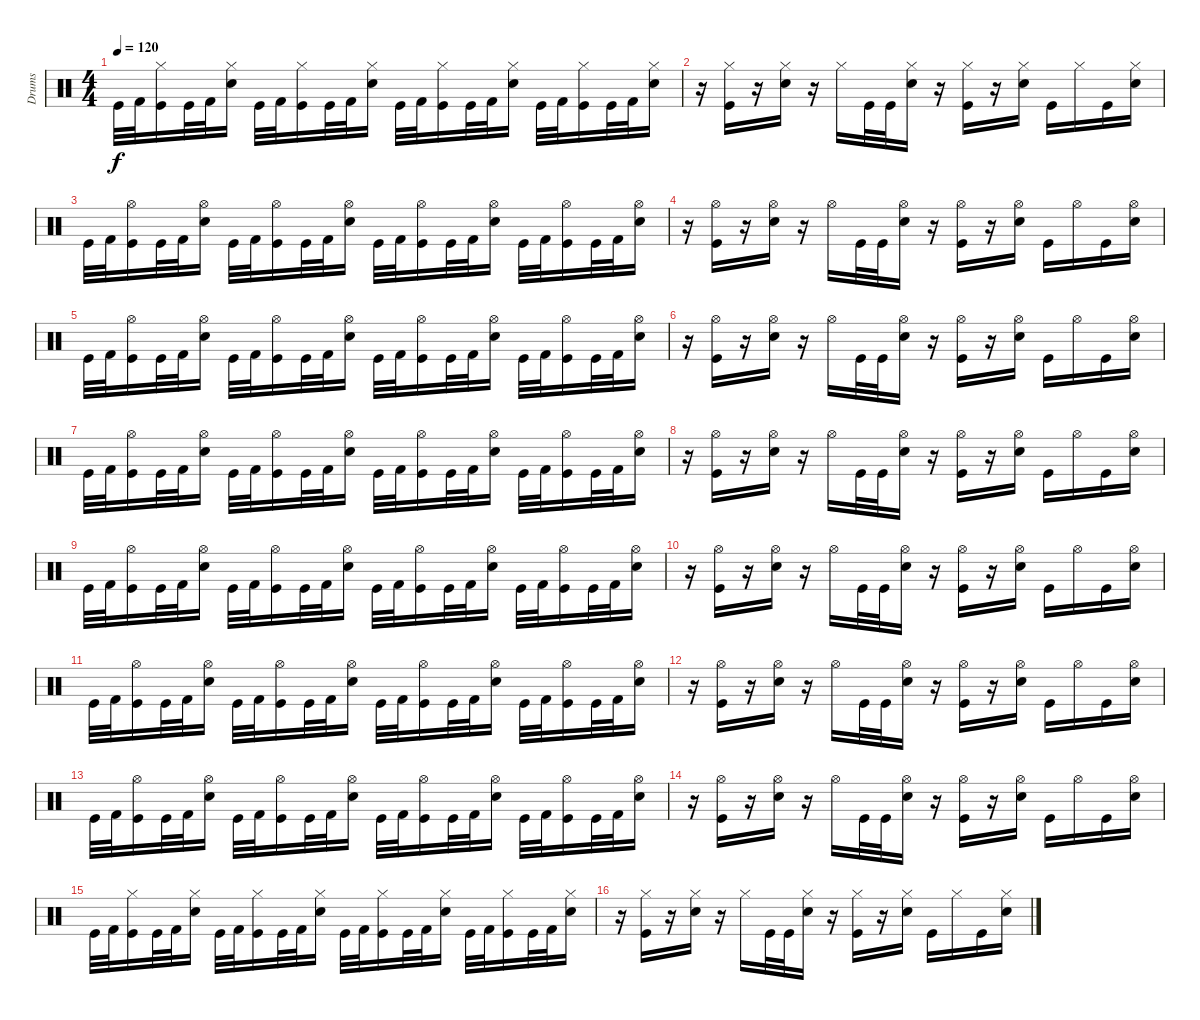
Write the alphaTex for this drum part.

\track ("Drums" "Drums") {instrument percussion}
\staff {score}
\articulation defaults
\ts (4 4)
\tempo 120
\clef neutral
\ks c "Kick (hit)".32{dy f} "Kick (hit) 2".32
("Hi-Hat (closed)" "Kick (hit)").16 "Kick (hit)".32 "Kick (hit) 2".32 ("Hi-Hat (closed)" "Snare (hit) 2").16 "Kick (hit)".32 "Kick (hit) 2".32 ("Hi-Hat (closed)" "Kick (hit)").16 "Kick (hit)".32 "Kick (hit) 2".32 ("Hi-Hat (closed)" "Snare (hit) 2").16 "Kick (hit)".32 "Kick (hit) 2".32 ("Hi-Hat (closed)" "Kick (hit)").16 "Kick (hit)".32 "Kick (hit) 2".32 ("Hi-Hat (closed)" "Snare (hit) 2").16 "Kick (hit)".32 "Kick (hit) 2".32 ("Hi-Hat (closed)" "Kick (hit)").16 "Kick (hit)".32 "Kick (hit) 2".32 ("Hi-Hat (closed)" "Snare (hit) 2").16 |
r.16 ("Hi-Hat (closed)" "Kick (hit)").16 r.16 ("Hi-Hat (closed)" "Snare (hit) 2").16 r.16 "Hi-Hat (closed)".16 "Kick (hit)".32 "Kick (hit)".32 ("Hi-Hat (closed)" "Snare (hit) 2").16 r.16 ("Hi-Hat (closed)" "Kick (hit)").16 r.16 ("Hi-Hat (closed)" "Snare (hit) 2").16 "Kick (hit)".16 "Hi-Hat (closed)".16 "Kick (hit)".16 ("Hi-Hat (closed)" "Snare (hit) 2").16 |
"Kick (hit)".32 "Kick (hit) 2".32 ("Hi-Hat (open)" "Kick (hit)").16 "Kick (hit)".32 "Kick (hit) 2".32 ("Hi-Hat (open)" "Snare (hit) 2").16 "Kick (hit)".32 "Kick (hit) 2".32 ("Hi-Hat (open)" "Kick (hit)").16 "Kick (hit)".32 "Kick (hit) 2".32 ("Hi-Hat (open)" "Snare (hit) 2").16 "Kick (hit)".32 "Kick (hit) 2".32 ("Hi-Hat (open)" "Kick (hit)").16 "Kick (hit)".32 "Kick (hit) 2".32 ("Hi-Hat (open)" "Snare (hit) 2").16 "Kick (hit)".32 "Kick (hit) 2".32 ("Hi-Hat (open)" "Kick (hit)").16 "Kick (hit)".32 "Kick (hit) 2".32 ("Hi-Hat (open)" "Snare (hit) 2").16 |
r.16 ("Hi-Hat (open)" "Kick (hit)").16 r.16 ("Hi-Hat (open)" "Snare (hit) 2").16 r.16 "Hi-Hat (open)".16 "Kick (hit)".32 "Kick (hit)".32 ("Hi-Hat (open)" "Snare (hit) 2").16 r.16 ("Hi-Hat (open)" "Kick (hit)").16 r.16 ("Hi-Hat (open)" "Snare (hit) 2").16 "Kick (hit)".16 "Hi-Hat (open)".16 "Kick (hit)".16 ("Hi-Hat (open)" "Snare (hit) 2").16 |
"Kick (hit)".32 "Kick (hit) 2".32 ("Hi-Hat (open)" "Kick (hit)").16 "Kick (hit)".32 "Kick (hit) 2".32 ("Hi-Hat (open)" "Snare (hit) 2").16 "Kick (hit)".32 "Kick (hit) 2".32 ("Hi-Hat (open)" "Kick (hit)").16 "Kick (hit)".32 "Kick (hit) 2".32 ("Hi-Hat (open)" "Snare (hit) 2").16 "Kick (hit)".32 "Kick (hit) 2".32 ("Hi-Hat (open)" "Kick (hit)").16 "Kick (hit)".32 "Kick (hit) 2".32 ("Hi-Hat (open)" "Snare (hit) 2").16 "Kick (hit)".32 "Kick (hit) 2".32 ("Hi-Hat (open)" "Kick (hit)").16 "Kick (hit)".32 "Kick (hit) 2".32 ("Hi-Hat (open)" "Snare (hit) 2").16 |
r.16 ("Hi-Hat (open)" "Kick (hit)").16 r.16 ("Hi-Hat (open)" "Snare (hit) 2").16 r.16 "Hi-Hat (open)".16 "Kick (hit)".32 "Kick (hit)".32 ("Hi-Hat (open)" "Snare (hit) 2").16 r.16 ("Hi-Hat (open)" "Kick (hit)").16 r.16 ("Hi-Hat (open)" "Snare (hit) 2").16 "Kick (hit)".16 "Hi-Hat (open)".16 "Kick (hit)".16 ("Hi-Hat (open)" "Snare (hit) 2").16 |
"Kick (hit)".32 "Kick (hit) 2".32 ("Hi-Hat (open)" "Kick (hit)").16 "Kick (hit)".32 "Kick (hit) 2".32 ("Hi-Hat (open)" "Snare (hit) 2").16 "Kick (hit)".32 "Kick (hit) 2".32 ("Hi-Hat (open)" "Kick (hit)").16 "Kick (hit)".32 "Kick (hit) 2".32 ("Hi-Hat (open)" "Snare (hit) 2").16 "Kick (hit)".32 "Kick (hit) 2".32 ("Hi-Hat (open)" "Kick (hit)").16 "Kick (hit)".32 "Kick (hit) 2".32 ("Hi-Hat (open)" "Snare (hit) 2").16 "Kick (hit)".32 "Kick (hit) 2".32 ("Hi-Hat (open)" "Kick (hit)").16 "Kick (hit)".32 "Kick (hit) 2".32 ("Hi-Hat (open)" "Snare (hit) 2").16 |
r.16 ("Hi-Hat (open)" "Kick (hit)").16 r.16 ("Hi-Hat (open)" "Snare (hit) 2").16 r.16 "Hi-Hat (open)".16 "Kick (hit)".32 "Kick (hit)".32 ("Hi-Hat (open)" "Snare (hit) 2").16 r.16 ("Hi-Hat (open)" "Kick (hit)").16 r.16 ("Hi-Hat (open)" "Snare (hit) 2").16 "Kick (hit)".16 "Hi-Hat (open)".16 "Kick (hit)".16 ("Hi-Hat (open)" "Snare (hit) 2").16 |
"Kick (hit)".32 "Kick (hit) 2".32 ("Hi-Hat (open)" "Kick (hit)").16 "Kick (hit)".32 "Kick (hit) 2".32 ("Hi-Hat (open)" "Snare (hit) 2").16 "Kick (hit)".32 "Kick (hit) 2".32 ("Hi-Hat (open)" "Kick (hit)").16 "Kick (hit)".32 "Kick (hit) 2".32 ("Hi-Hat (open)" "Snare (hit) 2").16 "Kick (hit)".32 "Kick (hit) 2".32 ("Hi-Hat (open)" "Kick (hit)").16 "Kick (hit)".32 "Kick (hit) 2".32 ("Hi-Hat (open)" "Snare (hit) 2").16 "Kick (hit)".32 "Kick (hit) 2".32 ("Hi-Hat (open)" "Kick (hit)").16 "Kick (hit)".32 "Kick (hit) 2".32 ("Hi-Hat (open)" "Snare (hit) 2").16 |
r.16 ("Hi-Hat (open)" "Kick (hit)").16 r.16 ("Hi-Hat (open)" "Snare (hit) 2").16 r.16 "Hi-Hat (open)".16 "Kick (hit)".32 "Kick (hit)".32 ("Hi-Hat (open)" "Snare (hit) 2").16 r.16 ("Hi-Hat (open)" "Kick (hit)").16 r.16 ("Hi-Hat (open)" "Snare (hit) 2").16 "Kick (hit)".16 "Hi-Hat (open)".16 "Kick (hit)".16 ("Hi-Hat (open)" "Snare (hit) 2").16 |
"Kick (hit)".32 "Kick (hit) 2".32 ("Hi-Hat (open)" "Kick (hit)").16 "Kick (hit)".32 "Kick (hit) 2".32 ("Hi-Hat (open)" "Snare (hit) 2").16 "Kick (hit)".32 "Kick (hit) 2".32 ("Hi-Hat (open)" "Kick (hit)").16 "Kick (hit)".32 "Kick (hit) 2".32 ("Hi-Hat (open)" "Snare (hit) 2").16 "Kick (hit)".32 "Kick (hit) 2".32 ("Hi-Hat (open)" "Kick (hit)").16 "Kick (hit)".32 "Kick (hit) 2".32 ("Hi-Hat (open)" "Snare (hit) 2").16 "Kick (hit)".32 "Kick (hit) 2".32 ("Hi-Hat (open)" "Kick (hit)").16 "Kick (hit)".32 "Kick (hit) 2".32 ("Hi-Hat (open)" "Snare (hit) 2").16 |
r.16 ("Hi-Hat (open)" "Kick (hit)").16 r.16 ("Hi-Hat (open)" "Snare (hit) 2").16 r.16 "Hi-Hat (open)".16 "Kick (hit)".32 "Kick (hit)".32 ("Hi-Hat (open)" "Snare (hit) 2").16 r.16 ("Hi-Hat (open)" "Kick (hit)").16 r.16 ("Hi-Hat (open)" "Snare (hit) 2").16 "Kick (hit)".16 "Hi-Hat (open)".16 "Kick (hit)".16 ("Hi-Hat (open)" "Snare (hit) 2").16 |
"Kick (hit)".32 "Kick (hit) 2".32 ("Hi-Hat (open)" "Kick (hit)").16 "Kick (hit)".32 "Kick (hit) 2".32 ("Hi-Hat (open)" "Snare (hit) 2").16 "Kick (hit)".32 "Kick (hit) 2".32 ("Hi-Hat (open)" "Kick (hit)").16 "Kick (hit)".32 "Kick (hit) 2".32 ("Hi-Hat (open)" "Snare (hit) 2").16 "Kick (hit)".32 "Kick (hit) 2".32 ("Hi-Hat (open)" "Kick (hit)").16 "Kick (hit)".32 "Kick (hit) 2".32 ("Hi-Hat (open)" "Snare (hit) 2").16 "Kick (hit)".32 "Kick (hit) 2".32 ("Hi-Hat (open)" "Kick (hit)").16 "Kick (hit)".32 "Kick (hit) 2".32 ("Hi-Hat (open)" "Snare (hit) 2").16 |
r.16 ("Hi-Hat (open)" "Kick (hit)").16 r.16 ("Hi-Hat (open)" "Snare (hit) 2").16 r.16 "Hi-Hat (open)".16 "Kick (hit)".32 "Kick (hit)".32 ("Hi-Hat (open)" "Snare (hit) 2").16 r.16 ("Hi-Hat (open)" "Kick (hit)").16 r.16 ("Hi-Hat (open)" "Snare (hit) 2").16 "Kick (hit)".16 "Hi-Hat (open)".16 "Kick (hit)".16 ("Hi-Hat (open)" "Snare (hit) 2").16 |
"Kick (hit)".32 "Kick (hit) 2".32 ("Hi-Hat (closed)" "Kick (hit)").16 "Kick (hit)".32 "Kick (hit) 2".32 ("Hi-Hat (closed)" "Snare (hit) 2").16 "Kick (hit)".32 "Kick (hit) 2".32 ("Hi-Hat (closed)" "Kick (hit)").16 "Kick (hit)".32 "Kick (hit) 2".32 ("Hi-Hat (closed)" "Snare (hit) 2").16 "Kick (hit)".32 "Kick (hit) 2".32 ("Hi-Hat (closed)" "Kick (hit)").16 "Kick (hit)".32 "Kick (hit) 2".32 ("Hi-Hat (closed)" "Snare (hit) 2").16 "Kick (hit)".32 "Kick (hit) 2".32 ("Hi-Hat (closed)" "Kick (hit)").16 "Kick (hit)".32 "Kick (hit) 2".32 ("Hi-Hat (closed)" "Snare (hit) 2").16 |
r.16 ("Hi-Hat (closed)" "Kick (hit)").16 r.16 ("Hi-Hat (closed)" "Snare (hit) 2").16 r.16 "Hi-Hat (closed)".16 "Kick (hit)".32 "Kick (hit)".32 ("Hi-Hat (closed)" "Snare (hit) 2").16 r.16 ("Hi-Hat (closed)" "Kick (hit)").16 r.16 ("Hi-Hat (closed)" "Snare (hit) 2").16 "Kick (hit)".16 "Hi-Hat (closed)".16 "Kick (hit)".16 ("Hi-Hat (closed)" "Snare (hit) 2").16
